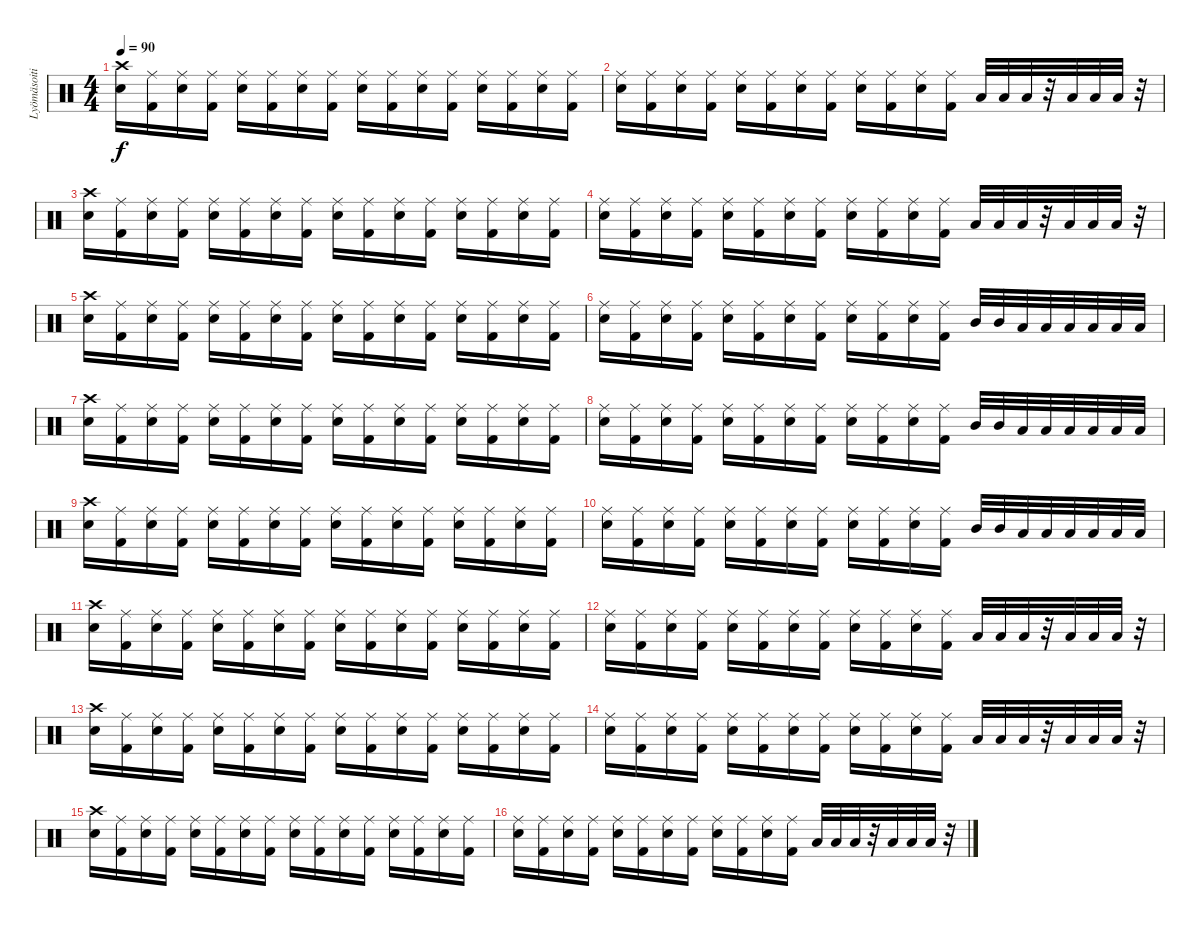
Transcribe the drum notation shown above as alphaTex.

\track ("Lyömäsoitin" "Lyömäsoiti") {instrument percussion}
\staff {score}
\articulation defaults
\ts (4 4)
\tempo 90
\clef neutral
\ks c
("Crash high (hit)" "Snare (hit) 2").16{dy f} ("Ride (middle)" "Kick (hit) 2").16 ("Ride (middle)" "Snare (hit) 2").16 ("Ride (middle)" "Kick (hit) 2").16 ("Ride (middle)" "Snare (hit) 2").16 ("Ride (middle)" "Kick (hit) 2").16 ("Ride (middle)" "Snare (hit) 2").16 ("Ride (middle)" "Kick (hit) 2").16 ("Ride (middle)" "Snare (hit) 2").16 ("Ride (middle)" "Kick (hit) 2").16 ("Ride (middle)" "Snare (hit) 2").16 ("Ride (middle)" "Kick (hit) 2").16 ("Ride (middle)" "Snare (hit) 2").16 ("Ride (middle)" "Kick (hit) 2").16 ("Ride (middle)" "Snare (hit) 2").16 ("Ride (middle)" "Kick (hit) 2").16 |
("Ride (middle)" "Snare (hit) 2").16 ("Ride (middle)" "Kick (hit) 2").16 ("Ride (middle)" "Snare (hit) 2").16 ("Ride (middle)" "Kick (hit) 2").16 ("Ride (middle)" "Snare (hit) 2").16 ("Ride (middle)" "Kick (hit) 2").16 ("Ride (middle)" "Snare (hit) 2").16 ("Ride (middle)" "Kick (hit) 2").16 ("Ride (middle)" "Snare (hit) 2").16 ("Ride (middle)" "Kick (hit) 2").16 ("Ride (middle)" "Snare (hit) 2").16 ("Ride (middle)" "Kick (hit) 2").16 "Low Tom (hit)".32 "Low Tom (hit)".32 "Low Tom (hit)".32 r.32 "Low Tom (hit)".32 "Low Tom (hit)".32 "Low Tom (hit)".32 r.32 |
("Crash high (hit)" "Snare (hit) 2").16 ("Ride (middle)" "Kick (hit) 2").16 ("Ride (middle)" "Snare (hit) 2").16 ("Ride (middle)" "Kick (hit) 2").16 ("Ride (middle)" "Snare (hit) 2").16 ("Ride (middle)" "Kick (hit) 2").16 ("Ride (middle)" "Snare (hit) 2").16 ("Ride (middle)" "Kick (hit) 2").16 ("Ride (middle)" "Snare (hit) 2").16 ("Ride (middle)" "Kick (hit) 2").16 ("Ride (middle)" "Snare (hit) 2").16 ("Ride (middle)" "Kick (hit) 2").16 ("Ride (middle)" "Snare (hit) 2").16 ("Ride (middle)" "Kick (hit) 2").16 ("Ride (middle)" "Snare (hit) 2").16 ("Ride (middle)" "Kick (hit) 2").16 |
("Ride (middle)" "Snare (hit) 2").16 ("Ride (middle)" "Kick (hit) 2").16 ("Ride (middle)" "Snare (hit) 2").16 ("Ride (middle)" "Kick (hit) 2").16 ("Ride (middle)" "Snare (hit) 2").16 ("Ride (middle)" "Kick (hit) 2").16 ("Ride (middle)" "Snare (hit) 2").16 ("Ride (middle)" "Kick (hit) 2").16 ("Ride (middle)" "Snare (hit) 2").16 ("Ride (middle)" "Kick (hit) 2").16 ("Ride (middle)" "Snare (hit) 2").16 ("Ride (middle)" "Kick (hit) 2").16 "Low Tom (hit)".32 "Low Tom (hit)".32 "Low Tom (hit)".32 r.32 "Low Tom (hit)".32 "Low Tom (hit)".32 "Low Tom (hit)".32 r.32 |
("Crash high (hit)" "Snare (hit) 2").16 ("Ride (middle)" "Kick (hit) 2").16 ("Ride (middle)" "Snare (hit) 2").16 ("Ride (middle)" "Kick (hit) 2").16 ("Ride (middle)" "Snare (hit) 2").16 ("Ride (middle)" "Kick (hit) 2").16 ("Ride (middle)" "Snare (hit) 2").16 ("Ride (middle)" "Kick (hit) 2").16 ("Ride (middle)" "Snare (hit) 2").16 ("Ride (middle)" "Kick (hit) 2").16 ("Ride (middle)" "Snare (hit) 2").16 ("Ride (middle)" "Kick (hit) 2").16 ("Ride (middle)" "Snare (hit) 2").16 ("Ride (middle)" "Kick (hit) 2").16 ("Ride (middle)" "Snare (hit) 2").16 ("Ride (middle)" "Kick (hit) 2").16 |
("Ride (middle)" "Snare (hit) 2").16 ("Ride (middle)" "Kick (hit) 2").16 ("Ride (middle)" "Snare (hit) 2").16 ("Ride (middle)" "Kick (hit) 2").16 ("Ride (middle)" "Snare (hit) 2").16 ("Ride (middle)" "Kick (hit) 2").16 ("Ride (middle)" "Snare (hit) 2").16 ("Ride (middle)" "Kick (hit) 2").16 ("Ride (middle)" "Snare (hit) 2").16 ("Ride (middle)" "Kick (hit) 2").16 ("Ride (middle)" "Snare (hit) 2").16 ("Ride (middle)" "Kick (hit) 2").16 "Mid Tom (hit)".32 "Mid Tom (hit)".32 "Low Tom (hit)".32 "Low Tom (hit)".32 "Low Floor Tom (hit)".32 "Low Floor Tom (hit)".32 "Low Floor Tom (hit)".32 "Low Floor Tom (hit)".32 |
("Crash high (hit)" "Snare (hit) 2").16 ("Ride (middle)" "Kick (hit) 2").16 ("Ride (middle)" "Snare (hit) 2").16 ("Ride (middle)" "Kick (hit) 2").16 ("Ride (middle)" "Snare (hit) 2").16 ("Ride (middle)" "Kick (hit) 2").16 ("Ride (middle)" "Snare (hit) 2").16 ("Ride (middle)" "Kick (hit) 2").16 ("Ride (middle)" "Snare (hit) 2").16 ("Ride (middle)" "Kick (hit) 2").16 ("Ride (middle)" "Snare (hit) 2").16 ("Ride (middle)" "Kick (hit) 2").16 ("Ride (middle)" "Snare (hit) 2").16 ("Ride (middle)" "Kick (hit) 2").16 ("Ride (middle)" "Snare (hit) 2").16 ("Ride (middle)" "Kick (hit) 2").16 |
("Ride (middle)" "Snare (hit) 2").16 ("Ride (middle)" "Kick (hit) 2").16 ("Ride (middle)" "Snare (hit) 2").16 ("Ride (middle)" "Kick (hit) 2").16 ("Ride (middle)" "Snare (hit) 2").16 ("Ride (middle)" "Kick (hit) 2").16 ("Ride (middle)" "Snare (hit) 2").16 ("Ride (middle)" "Kick (hit) 2").16 ("Ride (middle)" "Snare (hit) 2").16 ("Ride (middle)" "Kick (hit) 2").16 ("Ride (middle)" "Snare (hit) 2").16 ("Ride (middle)" "Kick (hit) 2").16 "Mid Tom (hit)".32 "Mid Tom (hit)".32 "Low Tom (hit)".32 "Low Tom (hit)".32 "Low Floor Tom (hit)".32 "Low Floor Tom (hit)".32 "Low Floor Tom (hit)".32 "Low Floor Tom (hit)".32 |
("Crash high (hit)" "Snare (hit) 2").16 ("Ride (middle)" "Kick (hit) 2").16 ("Ride (middle)" "Snare (hit) 2").16 ("Ride (middle)" "Kick (hit) 2").16 ("Ride (middle)" "Snare (hit) 2").16 ("Ride (middle)" "Kick (hit) 2").16 ("Ride (middle)" "Snare (hit) 2").16 ("Ride (middle)" "Kick (hit) 2").16 ("Ride (middle)" "Snare (hit) 2").16 ("Ride (middle)" "Kick (hit) 2").16 ("Ride (middle)" "Snare (hit) 2").16 ("Ride (middle)" "Kick (hit) 2").16 ("Ride (middle)" "Snare (hit) 2").16 ("Ride (middle)" "Kick (hit) 2").16 ("Ride (middle)" "Snare (hit) 2").16 ("Ride (middle)" "Kick (hit) 2").16 |
("Ride (middle)" "Snare (hit) 2").16 ("Ride (middle)" "Kick (hit) 2").16 ("Ride (middle)" "Snare (hit) 2").16 ("Ride (middle)" "Kick (hit) 2").16 ("Ride (middle)" "Snare (hit) 2").16 ("Ride (middle)" "Kick (hit) 2").16 ("Ride (middle)" "Snare (hit) 2").16 ("Ride (middle)" "Kick (hit) 2").16 ("Ride (middle)" "Snare (hit) 2").16 ("Ride (middle)" "Kick (hit) 2").16 ("Ride (middle)" "Snare (hit) 2").16 ("Ride (middle)" "Kick (hit) 2").16 "Mid Tom (hit)".32 "Mid Tom (hit)".32 "Low Tom (hit)".32 "Low Tom (hit)".32 "Low Floor Tom (hit)".32 "Low Floor Tom (hit)".32 "Low Floor Tom (hit)".32 "Low Floor Tom (hit)".32 |
("Crash high (hit)" "Snare (hit) 2").16 ("Ride (middle)" "Kick (hit) 2").16 ("Ride (middle)" "Snare (hit) 2").16 ("Ride (middle)" "Kick (hit) 2").16 ("Ride (middle)" "Snare (hit) 2").16 ("Ride (middle)" "Kick (hit) 2").16 ("Ride (middle)" "Snare (hit) 2").16 ("Ride (middle)" "Kick (hit) 2").16 ("Ride (middle)" "Snare (hit) 2").16 ("Ride (middle)" "Kick (hit) 2").16 ("Ride (middle)" "Snare (hit) 2").16 ("Ride (middle)" "Kick (hit) 2").16 ("Ride (middle)" "Snare (hit) 2").16 ("Ride (middle)" "Kick (hit) 2").16 ("Ride (middle)" "Snare (hit) 2").16 ("Ride (middle)" "Kick (hit) 2").16 |
("Ride (middle)" "Snare (hit) 2").16 ("Ride (middle)" "Kick (hit) 2").16 ("Ride (middle)" "Snare (hit) 2").16 ("Ride (middle)" "Kick (hit) 2").16 ("Ride (middle)" "Snare (hit) 2").16 ("Ride (middle)" "Kick (hit) 2").16 ("Ride (middle)" "Snare (hit) 2").16 ("Ride (middle)" "Kick (hit) 2").16 ("Ride (middle)" "Snare (hit) 2").16 ("Ride (middle)" "Kick (hit) 2").16 ("Ride (middle)" "Snare (hit) 2").16 ("Ride (middle)" "Kick (hit) 2").16 "Low Tom (hit)".32 "Low Tom (hit)".32 "Low Tom (hit)".32 r.32 "Low Tom (hit)".32 "Low Tom (hit)".32 "Low Tom (hit)".32 r.32 |
("Crash high (hit)" "Snare (hit) 2").16 ("Ride (middle)" "Kick (hit) 2").16 ("Ride (middle)" "Snare (hit) 2").16 ("Ride (middle)" "Kick (hit) 2").16 ("Ride (middle)" "Snare (hit) 2").16 ("Ride (middle)" "Kick (hit) 2").16 ("Ride (middle)" "Snare (hit) 2").16 ("Ride (middle)" "Kick (hit) 2").16 ("Ride (middle)" "Snare (hit) 2").16 ("Ride (middle)" "Kick (hit) 2").16 ("Ride (middle)" "Snare (hit) 2").16 ("Ride (middle)" "Kick (hit) 2").16 ("Ride (middle)" "Snare (hit) 2").16 ("Ride (middle)" "Kick (hit) 2").16 ("Ride (middle)" "Snare (hit) 2").16 ("Ride (middle)" "Kick (hit) 2").16 |
("Ride (middle)" "Snare (hit) 2").16 ("Ride (middle)" "Kick (hit) 2").16 ("Ride (middle)" "Snare (hit) 2").16 ("Ride (middle)" "Kick (hit) 2").16 ("Ride (middle)" "Snare (hit) 2").16 ("Ride (middle)" "Kick (hit) 2").16 ("Ride (middle)" "Snare (hit) 2").16 ("Ride (middle)" "Kick (hit) 2").16 ("Ride (middle)" "Snare (hit) 2").16 ("Ride (middle)" "Kick (hit) 2").16 ("Ride (middle)" "Snare (hit) 2").16 ("Ride (middle)" "Kick (hit) 2").16 "Low Tom (hit)".32 "Low Tom (hit)".32 "Low Tom (hit)".32 r.32 "Low Tom (hit)".32 "Low Tom (hit)".32 "Low Tom (hit)".32 r.32 |
("Crash high (hit)" "Snare (hit) 2").16 ("Ride (middle)" "Kick (hit) 2").16 ("Ride (middle)" "Snare (hit) 2").16 ("Ride (middle)" "Kick (hit) 2").16 ("Ride (middle)" "Snare (hit) 2").16 ("Ride (middle)" "Kick (hit) 2").16 ("Ride (middle)" "Snare (hit) 2").16 ("Ride (middle)" "Kick (hit) 2").16 ("Ride (middle)" "Snare (hit) 2").16 ("Ride (middle)" "Kick (hit) 2").16 ("Ride (middle)" "Snare (hit) 2").16 ("Ride (middle)" "Kick (hit) 2").16 ("Ride (middle)" "Snare (hit) 2").16 ("Ride (middle)" "Kick (hit) 2").16 ("Ride (middle)" "Snare (hit) 2").16 ("Ride (middle)" "Kick (hit) 2").16 |
("Ride (middle)" "Snare (hit) 2").16 ("Ride (middle)" "Kick (hit) 2").16 ("Ride (middle)" "Snare (hit) 2").16 ("Ride (middle)" "Kick (hit) 2").16 ("Ride (middle)" "Snare (hit) 2").16 ("Ride (middle)" "Kick (hit) 2").16 ("Ride (middle)" "Snare (hit) 2").16 ("Ride (middle)" "Kick (hit) 2").16 ("Ride (middle)" "Snare (hit) 2").16 ("Ride (middle)" "Kick (hit) 2").16 ("Ride (middle)" "Snare (hit) 2").16 ("Ride (middle)" "Kick (hit) 2").16 "Low Tom (hit)".32 "Low Tom (hit)".32 "Low Tom (hit)".32 r.32 "Low Tom (hit)".32 "Low Tom (hit)".32 "Low Tom (hit)".32 r.32
